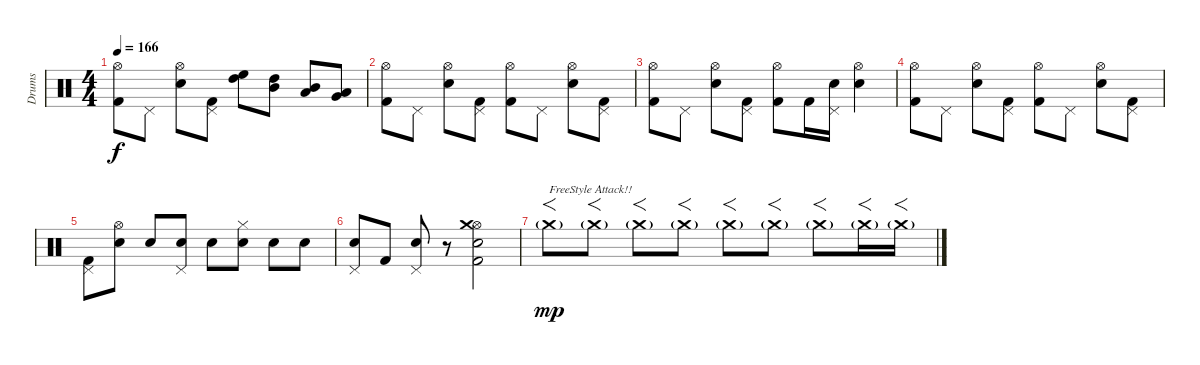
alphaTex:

\track ("Drums" "Drums") {instrument percussion}
\staff {score}
\articulation defaults
\ts (4 4)
\tempo 166
\clef neutral
\ks c
("Kick (hit) 2" "Hi-Hat (open)").8{dy f} "Pedal Hi-Hat (hit)".8 ("Snare (hit) 2" "Hi-Hat (open)").8 ("Kick (hit) 2" "Pedal Hi-Hat (hit)").8 ("High Tom (hit)" "High Floor Tom (hit)").8 ("Mid Tom (hit)" "High Tom (hit)").8 ("Low Tom (hit)" "Mid Tom (hit)").8 ("Very Low Tom (hit)" "Low Tom (hit)").8 |
("Kick (hit) 2" "Hi-Hat (open)").8 "Pedal Hi-Hat (hit)".8 ("Snare (hit) 2" "Hi-Hat (open)").8 ("Kick (hit) 2" "Pedal Hi-Hat (hit)").8 ("Kick (hit) 2" "Hi-Hat (open)").8 "Pedal Hi-Hat (hit)".8 ("Snare (hit) 2" "Hi-Hat (open)").8 ("Kick (hit) 2" "Pedal Hi-Hat (hit)").8 |
("Kick (hit) 2" "Hi-Hat (open)").8 "Pedal Hi-Hat (hit)".8 ("Snare (hit) 2" "Hi-Hat (open)").8 ("Kick (hit) 2" "Pedal Hi-Hat (hit)").8 ("Kick (hit) 2" "Hi-Hat (open)").8 "Kick (hit) 2".16 ("Snare (hit) 2" "Pedal Hi-Hat (hit)").16 ("Snare (hit) 2" "Hi-Hat (open)").4 |
("Kick (hit) 2" "Hi-Hat (open)").8 "Pedal Hi-Hat (hit)".8 ("Snare (hit) 2" "Hi-Hat (open)").8 ("Kick (hit) 2" "Pedal Hi-Hat (hit)").8 ("Kick (hit) 2" "Hi-Hat (open)").8 "Pedal Hi-Hat (hit)".8 ("Snare (hit) 2" "Hi-Hat (open)").8 ("Kick (hit) 2" "Pedal Hi-Hat (hit)").8 |
("Kick (hit) 2" "Pedal Hi-Hat (hit)").8 ("Snare (hit) 2" "Hi-Hat (open)").8 "Snare (hit) 2".8 ("Snare (hit) 2" "Pedal Hi-Hat (hit)").8 "Snare (hit) 2".8 ("Snare (hit) 2" "Hi-Hat (closed)").8 "Snare (hit) 2".8 "Snare (hit) 2".8 |
("Snare (hit) 2" "Pedal Hi-Hat (hit)").8 "Kick (hit) 2".8 ("Snare (hit) 2" "Pedal Hi-Hat (hit)").8 r.8 ("Kick (hit) 2" "Snare (hit) 2" "Hi-Hat (open)" "Crash medium (hit)").2 |
"Crash medium (hit)"{g}.8{f txt "FreeStyle Attack!!" dy mp} "Crash medium (hit)"{g}.8{f} "Crash medium (hit)"{g}.8{f} "Crash medium (hit)"{g}.8{f} "Crash medium (hit)"{g}.8{f} "Crash medium (hit)"{g}.8{f} "Crash medium (hit)"{g}.8{f} "Crash medium (hit)"{g}.16{f} "Crash medium (hit)"{g}.16{f}
